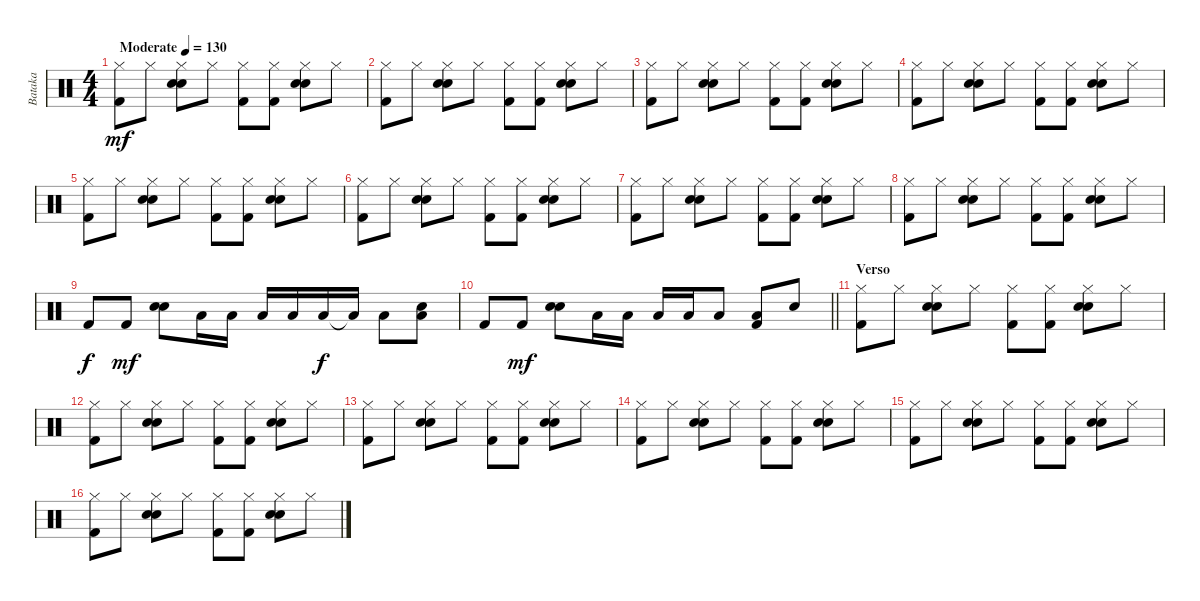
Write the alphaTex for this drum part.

\track ("Bataka" "Bataka") {instrument percussion}
\staff
\articulation defaults
\ts (4 4)
\tempo (130 "Moderate")
\clef neutral
\ks c
("Hi-Hat (closed)" "Kick (hit) 2").8{dy mf} "Hi-Hat (closed)".8 ("Hi-Hat (closed)" "Electric Snare (hit)" "Snare (hit) 2").8 "Hi-Hat (closed)".8 ("Hi-Hat (closed)" "Kick (hit) 2").8 ("Hi-Hat (closed)" "Kick (hit) 2").8 ("Hi-Hat (closed)" "Electric Snare (hit)" "Snare (hit) 2").8 "Hi-Hat (closed)".8 |
("Hi-Hat (closed)" "Kick (hit) 2").8 "Hi-Hat (closed)".8 ("Hi-Hat (closed)" "Electric Snare (hit)" "Snare (hit) 2").8 "Hi-Hat (closed)".8 ("Hi-Hat (closed)" "Kick (hit) 2").8 ("Hi-Hat (closed)" "Kick (hit) 2").8 ("Hi-Hat (closed)" "Electric Snare (hit)" "Snare (hit) 2").8 "Hi-Hat (closed)".8 |
("Hi-Hat (closed)" "Kick (hit) 2").8 "Hi-Hat (closed)".8 ("Hi-Hat (closed)" "Electric Snare (hit)" "Snare (hit) 2").8 "Hi-Hat (closed)".8 ("Hi-Hat (closed)" "Kick (hit) 2").8 ("Hi-Hat (closed)" "Kick (hit) 2").8 ("Hi-Hat (closed)" "Electric Snare (hit)" "Snare (hit) 2").8 "Hi-Hat (closed)".8 |
("Hi-Hat (closed)" "Kick (hit) 2").8 "Hi-Hat (closed)".8 ("Hi-Hat (closed)" "Electric Snare (hit)" "Snare (hit) 2").8 "Hi-Hat (closed)".8 ("Hi-Hat (closed)" "Kick (hit) 2").8 ("Hi-Hat (closed)" "Kick (hit) 2").8 ("Hi-Hat (closed)" "Electric Snare (hit)" "Snare (hit) 2").8 "Hi-Hat (closed)".8 |
("Hi-Hat (closed)" "Kick (hit) 2").8 "Hi-Hat (closed)".8 ("Hi-Hat (closed)" "Electric Snare (hit)" "Snare (hit) 2").8 "Hi-Hat (closed)".8 ("Hi-Hat (closed)" "Kick (hit) 2").8 ("Hi-Hat (closed)" "Kick (hit) 2").8 ("Hi-Hat (closed)" "Electric Snare (hit)" "Snare (hit) 2").8 "Hi-Hat (closed)".8 |
("Hi-Hat (closed)" "Kick (hit) 2").8 "Hi-Hat (closed)".8 ("Hi-Hat (closed)" "Electric Snare (hit)" "Snare (hit) 2").8 "Hi-Hat (closed)".8 ("Hi-Hat (closed)" "Kick (hit) 2").8 ("Hi-Hat (closed)" "Kick (hit) 2").8 ("Hi-Hat (closed)" "Electric Snare (hit)" "Snare (hit) 2").8 "Hi-Hat (closed)".8 |
("Hi-Hat (closed)" "Kick (hit) 2").8 "Hi-Hat (closed)".8 ("Hi-Hat (closed)" "Electric Snare (hit)" "Snare (hit) 2").8 "Hi-Hat (closed)".8 ("Hi-Hat (closed)" "Kick (hit) 2").8 ("Hi-Hat (closed)" "Kick (hit) 2").8 ("Hi-Hat (closed)" "Electric Snare (hit)" "Snare (hit) 2").8 "Hi-Hat (closed)".8 |
("Hi-Hat (closed)" "Kick (hit) 2").8 "Hi-Hat (closed)".8 ("Hi-Hat (closed)" "Electric Snare (hit)" "Snare (hit) 2").8 "Hi-Hat (closed)".8 ("Hi-Hat (closed)" "Kick (hit) 2").8 ("Hi-Hat (closed)" "Kick (hit) 2").8 ("Hi-Hat (closed)" "Electric Snare (hit)" "Snare (hit) 2").8 "Hi-Hat (closed)".8 |
"Kick (hit) 2".8{dy f} "Kick (hit) 2".8{dy mf} ("Electric Snare (hit)" "Snare (hit) 2").8 "Low Tom (hit)".16 "Low Tom (hit)".16 "Low Tom (hit)".16 "Low Tom (hit)".16 "Low Tom (hit)".16{dy f} "Low Tom (hit)"{t}.16 "Low Tom (hit)".8 ("Low Tom (hit)" "Electric Snare (hit)").8 |
\barLineRight lightlight "Kick (hit) 2".8 "Kick (hit) 2".8{dy mf}
("Electric Snare (hit)" "Snare (hit) 2").8 "Low Tom (hit)".16 "Low Tom (hit)".16 "Low Tom (hit)".16 "Low Tom (hit)".16 "Low Tom (hit)".8 ("Low Tom (hit)" "Kick (hit) 2").8 "Electric Snare (hit)".8 |
\section ("" "Verso")
("Hi-Hat (closed)" "Kick (hit) 2").8 "Hi-Hat (closed)".8 ("Hi-Hat (closed)" "Electric Snare (hit)" "Snare (hit) 2").8 "Hi-Hat (closed)".8 ("Hi-Hat (closed)" "Kick (hit) 2").8 ("Hi-Hat (closed)" "Kick (hit) 2").8 ("Hi-Hat (closed)" "Electric Snare (hit)" "Snare (hit) 2").8 "Hi-Hat (closed)".8 |
("Hi-Hat (closed)" "Kick (hit) 2").8 "Hi-Hat (closed)".8 ("Hi-Hat (closed)" "Electric Snare (hit)" "Snare (hit) 2").8 "Hi-Hat (closed)".8 ("Hi-Hat (closed)" "Kick (hit) 2").8 ("Hi-Hat (closed)" "Kick (hit) 2").8 ("Hi-Hat (closed)" "Electric Snare (hit)" "Snare (hit) 2").8 "Hi-Hat (closed)".8 |
("Hi-Hat (closed)" "Kick (hit) 2").8 "Hi-Hat (closed)".8 ("Hi-Hat (closed)" "Electric Snare (hit)" "Snare (hit) 2").8 "Hi-Hat (closed)".8 ("Hi-Hat (closed)" "Kick (hit) 2").8 ("Hi-Hat (closed)" "Kick (hit) 2").8 ("Hi-Hat (closed)" "Electric Snare (hit)" "Snare (hit) 2").8 "Hi-Hat (closed)".8 |
("Hi-Hat (closed)" "Kick (hit) 2").8 "Hi-Hat (closed)".8 ("Hi-Hat (closed)" "Electric Snare (hit)" "Snare (hit) 2").8 "Hi-Hat (closed)".8 ("Hi-Hat (closed)" "Kick (hit) 2").8 ("Hi-Hat (closed)" "Kick (hit) 2").8 ("Hi-Hat (closed)" "Electric Snare (hit)" "Snare (hit) 2").8 "Hi-Hat (closed)".8 |
("Hi-Hat (closed)" "Kick (hit) 2").8 "Hi-Hat (closed)".8 ("Hi-Hat (closed)" "Electric Snare (hit)" "Snare (hit) 2").8 "Hi-Hat (closed)".8 ("Hi-Hat (closed)" "Kick (hit) 2").8 ("Hi-Hat (closed)" "Kick (hit) 2").8 ("Hi-Hat (closed)" "Electric Snare (hit)" "Snare (hit) 2").8 "Hi-Hat (closed)".8 |
("Hi-Hat (closed)" "Kick (hit) 2").8 "Hi-Hat (closed)".8 ("Hi-Hat (closed)" "Electric Snare (hit)" "Snare (hit) 2").8 "Hi-Hat (closed)".8 ("Hi-Hat (closed)" "Kick (hit) 2").8 ("Hi-Hat (closed)" "Kick (hit) 2").8 ("Hi-Hat (closed)" "Electric Snare (hit)" "Snare (hit) 2").8 "Hi-Hat (closed)".8
